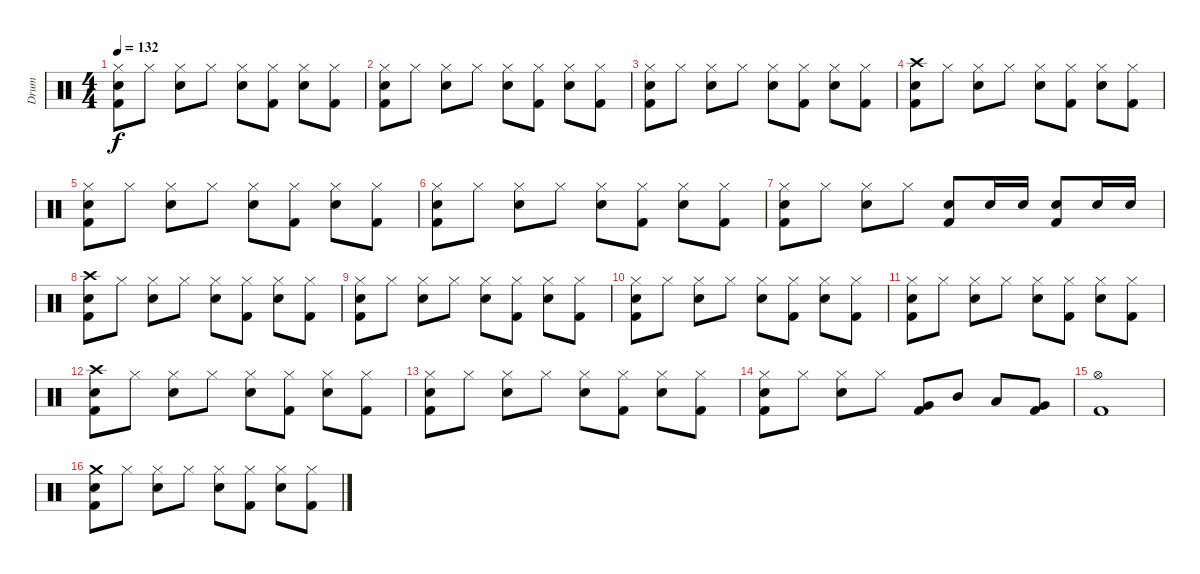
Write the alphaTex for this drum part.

\track ("Drum" "Drum") {instrument percussion}
\staff {score}
\articulation defaults
\ts (4 4)
\tempo 132
\clef neutral
\ks c
("Hi-Hat (closed)" "Electric Snare (hit)" "Kick (hit) 2").8{dy f} "Hi-Hat (closed)".8 ("Hi-Hat (closed)" "Electric Snare (hit)").8 "Hi-Hat (closed)".8 ("Hi-Hat (closed)" "Electric Snare (hit)").8 ("Hi-Hat (closed)" "Kick (hit) 2").8 ("Hi-Hat (closed)" "Electric Snare (hit)").8 ("Hi-Hat (closed)" "Kick (hit) 2").8 |
("Hi-Hat (closed)" "Electric Snare (hit)" "Kick (hit) 2").8 "Hi-Hat (closed)".8 ("Hi-Hat (closed)" "Electric Snare (hit)").8 "Hi-Hat (closed)".8 ("Hi-Hat (closed)" "Electric Snare (hit)").8 ("Hi-Hat (closed)" "Kick (hit) 2").8 ("Hi-Hat (closed)" "Electric Snare (hit)").8 ("Hi-Hat (closed)" "Kick (hit) 2").8 |
("Hi-Hat (closed)" "Electric Snare (hit)" "Kick (hit) 2").8 "Hi-Hat (closed)".8 ("Hi-Hat (closed)" "Electric Snare (hit)").8 "Hi-Hat (closed)".8 ("Hi-Hat (closed)" "Electric Snare (hit)").8 ("Hi-Hat (closed)" "Kick (hit) 2").8 ("Hi-Hat (closed)" "Electric Snare (hit)").8 ("Hi-Hat (closed)" "Kick (hit) 2").8 |
("Crash high (hit)" "Electric Snare (hit)" "Kick (hit) 2").8 "Hi-Hat (closed)".8 ("Hi-Hat (closed)" "Electric Snare (hit)").8 "Hi-Hat (closed)".8 ("Hi-Hat (closed)" "Electric Snare (hit)").8 ("Hi-Hat (closed)" "Kick (hit) 2").8 ("Hi-Hat (closed)" "Electric Snare (hit)").8 ("Hi-Hat (closed)" "Kick (hit) 2").8 |
("Hi-Hat (closed)" "Electric Snare (hit)" "Kick (hit) 2").8 "Hi-Hat (closed)".8 ("Hi-Hat (closed)" "Electric Snare (hit)").8 "Hi-Hat (closed)".8 ("Hi-Hat (closed)" "Electric Snare (hit)").8 ("Hi-Hat (closed)" "Kick (hit) 2").8 ("Hi-Hat (closed)" "Electric Snare (hit)").8 ("Hi-Hat (closed)" "Kick (hit) 2").8 |
("Hi-Hat (closed)" "Electric Snare (hit)" "Kick (hit) 2").8 "Hi-Hat (closed)".8 ("Hi-Hat (closed)" "Electric Snare (hit)").8 "Hi-Hat (closed)".8 ("Hi-Hat (closed)" "Electric Snare (hit)").8 ("Hi-Hat (closed)" "Kick (hit) 2").8 ("Hi-Hat (closed)" "Electric Snare (hit)").8 ("Hi-Hat (closed)" "Kick (hit) 2").8 |
("Hi-Hat (closed)" "Electric Snare (hit)" "Kick (hit) 2").8 "Hi-Hat (closed)".8 ("Hi-Hat (closed)" "Electric Snare (hit)").8 "Hi-Hat (closed)".8 ("Electric Snare (hit)" "Kick (hit) 2").8 "Electric Snare (hit)".16 "Electric Snare (hit)".16 ("Electric Snare (hit)" "Kick (hit) 2").8 "Electric Snare (hit)".16 "Electric Snare (hit)".16 |
("Crash high (hit)" "Electric Snare (hit)" "Kick (hit) 2").8 "Hi-Hat (closed)".8 ("Hi-Hat (closed)" "Electric Snare (hit)").8 "Hi-Hat (closed)".8 ("Hi-Hat (closed)" "Electric Snare (hit)").8 ("Hi-Hat (closed)" "Kick (hit) 2").8 ("Hi-Hat (closed)" "Electric Snare (hit)").8 ("Hi-Hat (closed)" "Kick (hit) 2").8 |
("Hi-Hat (closed)" "Electric Snare (hit)" "Kick (hit) 2").8 "Hi-Hat (closed)".8 ("Hi-Hat (closed)" "Electric Snare (hit)").8 "Hi-Hat (closed)".8 ("Hi-Hat (closed)" "Electric Snare (hit)").8 ("Hi-Hat (closed)" "Kick (hit) 2").8 ("Hi-Hat (closed)" "Electric Snare (hit)").8 ("Hi-Hat (closed)" "Kick (hit) 2").8 |
("Hi-Hat (closed)" "Electric Snare (hit)" "Kick (hit) 2").8 "Hi-Hat (closed)".8 ("Hi-Hat (closed)" "Electric Snare (hit)").8 "Hi-Hat (closed)".8 ("Hi-Hat (closed)" "Electric Snare (hit)").8 ("Hi-Hat (closed)" "Kick (hit) 2").8 ("Hi-Hat (closed)" "Electric Snare (hit)").8 ("Hi-Hat (closed)" "Kick (hit) 2").8 |
("Hi-Hat (closed)" "Electric Snare (hit)" "Kick (hit) 2").8 "Hi-Hat (closed)".8 ("Hi-Hat (closed)" "Electric Snare (hit)").8 "Hi-Hat (closed)".8 ("Hi-Hat (closed)" "Electric Snare (hit)").8 ("Hi-Hat (closed)" "Kick (hit) 2").8 ("Hi-Hat (closed)" "Electric Snare (hit)").8 ("Hi-Hat (closed)" "Kick (hit) 2").8 |
("Crash high (hit)" "Electric Snare (hit)" "Kick (hit) 2").8 "Hi-Hat (closed)".8 ("Hi-Hat (closed)" "Electric Snare (hit)").8 "Hi-Hat (closed)".8 ("Hi-Hat (closed)" "Electric Snare (hit)").8 ("Hi-Hat (closed)" "Kick (hit) 2").8 ("Hi-Hat (closed)" "Electric Snare (hit)").8 ("Hi-Hat (closed)" "Kick (hit) 2").8 |
("Hi-Hat (closed)" "Electric Snare (hit)" "Kick (hit) 2").8 "Hi-Hat (closed)".8 ("Hi-Hat (closed)" "Electric Snare (hit)").8 "Hi-Hat (closed)".8 ("Hi-Hat (closed)" "Electric Snare (hit)").8 ("Hi-Hat (closed)" "Kick (hit) 2").8 ("Hi-Hat (closed)" "Electric Snare (hit)").8 ("Hi-Hat (closed)" "Kick (hit) 2").8 |
("Hi-Hat (closed)" "Electric Snare (hit)" "Kick (hit) 2").8 "Hi-Hat (closed)".8 ("Hi-Hat (closed)" "Electric Snare (hit)").8 "Hi-Hat (closed)".8 ("Very Low Tom (hit)" "Kick (hit) 2").8 "Mid Tom (hit)".8 "Low Tom (hit)".8 ("Very Low Tom (hit)" "Kick (hit) 2").8 |
("Hi-Hat (open)" "Kick (hit) 2").1 |
("Crash medium (hit)" "Electric Snare (hit)" "Kick (hit) 2").8 "Hi-Hat (closed)".8 ("Hi-Hat (closed)" "Electric Snare (hit)").8 "Hi-Hat (closed)".8 ("Hi-Hat (closed)" "Electric Snare (hit)").8 ("Hi-Hat (closed)" "Kick (hit) 2").8 ("Hi-Hat (closed)" "Electric Snare (hit)").8 ("Hi-Hat (closed)" "Kick (hit) 2").8
